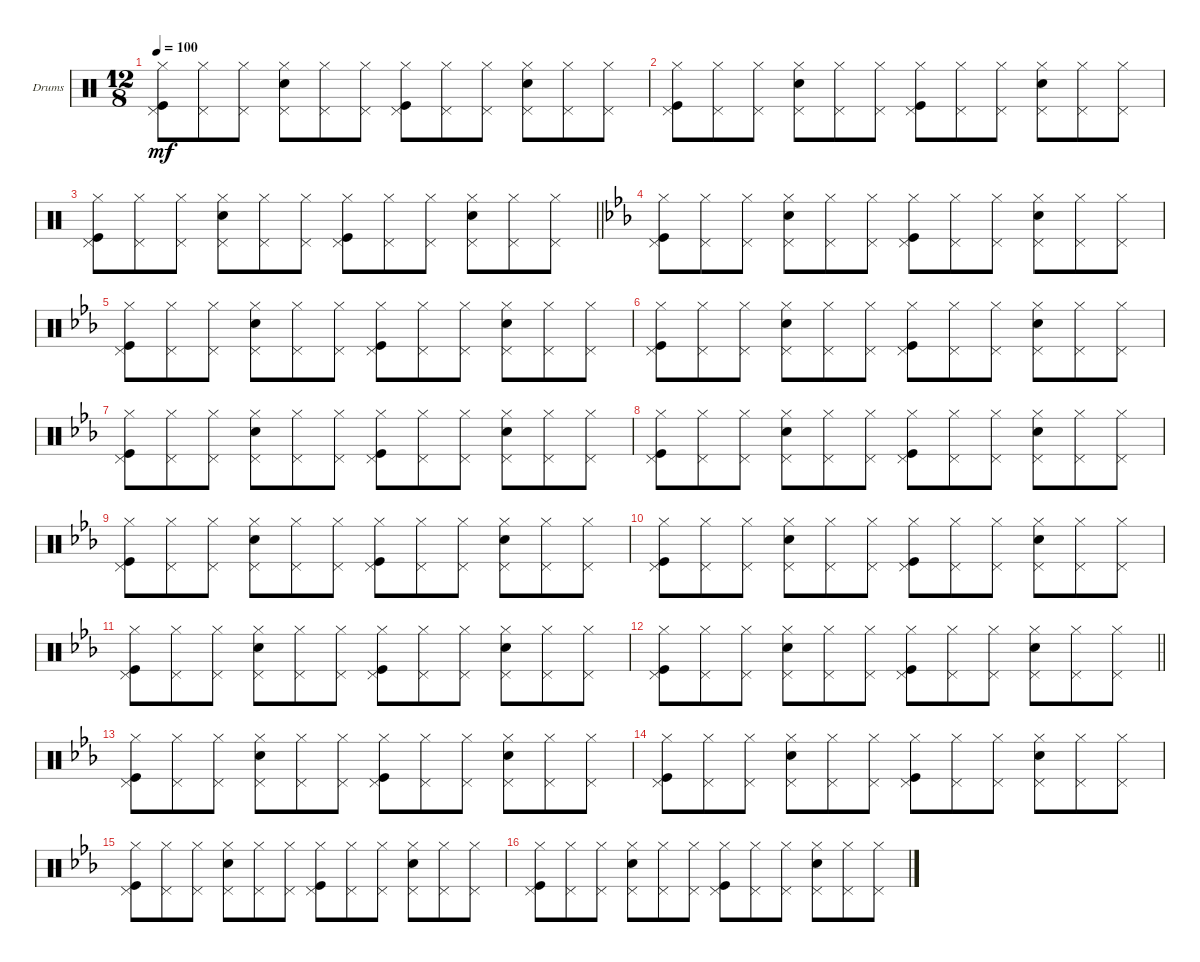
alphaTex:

\defaultSystemsLayout 4
\bracketExtendMode nobrackets
\firstSystemTrackNameOrientation horizontal
\otherSystemsTrackNameOrientation horizontal
\track ("Drumkit" "Drums") {instrument percussion}
\staff {score}
\articulation defaults
\ts (12 8)
\tempo 100
\clef neutral
\ks c
("Pedal Hi-Hat (hit)" "Kick (hit)" "Hi-Hat (closed)").8{dy mf} ("Pedal Hi-Hat (hit)" "Hi-Hat (closed)").8 ("Pedal Hi-Hat (hit)" "Hi-Hat (closed)").8 ("Pedal Hi-Hat (hit)" "Snare (hit) 2" "Hi-Hat (closed)").8 ("Pedal Hi-Hat (hit)" "Hi-Hat (closed)").8 ("Pedal Hi-Hat (hit)" "Hi-Hat (closed)").8 ("Pedal Hi-Hat (hit)" "Kick (hit)" "Hi-Hat (closed)").8 ("Pedal Hi-Hat (hit)" "Hi-Hat (closed)").8 ("Pedal Hi-Hat (hit)" "Hi-Hat (closed)").8 ("Pedal Hi-Hat (hit)" "Snare (hit) 2" "Hi-Hat (closed)").8 ("Pedal Hi-Hat (hit)" "Hi-Hat (closed)").8 ("Pedal Hi-Hat (hit)" "Hi-Hat (closed)").8 |
("Pedal Hi-Hat (hit)" "Kick (hit)" "Hi-Hat (closed)").8 ("Pedal Hi-Hat (hit)" "Hi-Hat (closed)").8 ("Pedal Hi-Hat (hit)" "Hi-Hat (closed)").8 ("Pedal Hi-Hat (hit)" "Snare (hit) 2" "Hi-Hat (closed)").8 ("Pedal Hi-Hat (hit)" "Hi-Hat (closed)").8 ("Pedal Hi-Hat (hit)" "Hi-Hat (closed)").8 ("Pedal Hi-Hat (hit)" "Kick (hit)" "Hi-Hat (closed)").8 ("Pedal Hi-Hat (hit)" "Hi-Hat (closed)").8 ("Pedal Hi-Hat (hit)" "Hi-Hat (closed)").8 ("Pedal Hi-Hat (hit)" "Snare (hit) 2" "Hi-Hat (closed)").8 ("Pedal Hi-Hat (hit)" "Hi-Hat (closed)").8 ("Pedal Hi-Hat (hit)" "Hi-Hat (closed)").8 |
\barLineRight lightlight
("Pedal Hi-Hat (hit)" "Kick (hit)" "Hi-Hat (closed)").8 ("Pedal Hi-Hat (hit)" "Hi-Hat (closed)").8 ("Pedal Hi-Hat (hit)" "Hi-Hat (closed)").8 ("Pedal Hi-Hat (hit)" "Snare (hit) 2" "Hi-Hat (closed)").8 ("Pedal Hi-Hat (hit)" "Hi-Hat (closed)").8 ("Pedal Hi-Hat (hit)" "Hi-Hat (closed)").8 ("Pedal Hi-Hat (hit)" "Kick (hit)" "Hi-Hat (closed)").8 ("Pedal Hi-Hat (hit)" "Hi-Hat (closed)").8 ("Pedal Hi-Hat (hit)" "Hi-Hat (closed)").8 ("Pedal Hi-Hat (hit)" "Snare (hit) 2" "Hi-Hat (closed)").8 ("Pedal Hi-Hat (hit)" "Hi-Hat (closed)").8 ("Pedal Hi-Hat (hit)" "Hi-Hat (closed)").8 |
\ks eb
("Pedal Hi-Hat (hit)" "Kick (hit)" "Hi-Hat (closed)").8 ("Pedal Hi-Hat (hit)" "Hi-Hat (closed)").8 ("Pedal Hi-Hat (hit)" "Hi-Hat (closed)").8 ("Pedal Hi-Hat (hit)" "Snare (hit) 2" "Hi-Hat (closed)").8 ("Pedal Hi-Hat (hit)" "Hi-Hat (closed)").8 ("Pedal Hi-Hat (hit)" "Hi-Hat (closed)").8 ("Pedal Hi-Hat (hit)" "Kick (hit)" "Hi-Hat (closed)").8 ("Pedal Hi-Hat (hit)" "Hi-Hat (closed)").8 ("Pedal Hi-Hat (hit)" "Hi-Hat (closed)").8 ("Pedal Hi-Hat (hit)" "Snare (hit) 2" "Hi-Hat (closed)").8 ("Pedal Hi-Hat (hit)" "Hi-Hat (closed)").8 ("Pedal Hi-Hat (hit)" "Hi-Hat (closed)").8 |
("Pedal Hi-Hat (hit)" "Kick (hit)" "Hi-Hat (closed)").8 ("Pedal Hi-Hat (hit)" "Hi-Hat (closed)").8 ("Pedal Hi-Hat (hit)" "Hi-Hat (closed)").8 ("Pedal Hi-Hat (hit)" "Snare (hit) 2" "Hi-Hat (closed)").8 ("Pedal Hi-Hat (hit)" "Hi-Hat (closed)").8 ("Pedal Hi-Hat (hit)" "Hi-Hat (closed)").8 ("Pedal Hi-Hat (hit)" "Kick (hit)" "Hi-Hat (closed)").8 ("Pedal Hi-Hat (hit)" "Hi-Hat (closed)").8 ("Pedal Hi-Hat (hit)" "Hi-Hat (closed)").8 ("Pedal Hi-Hat (hit)" "Snare (hit) 2" "Hi-Hat (closed)").8 ("Pedal Hi-Hat (hit)" "Hi-Hat (closed)").8 ("Pedal Hi-Hat (hit)" "Hi-Hat (closed)").8 |
("Pedal Hi-Hat (hit)" "Kick (hit)" "Hi-Hat (closed)").8 ("Pedal Hi-Hat (hit)" "Hi-Hat (closed)").8 ("Pedal Hi-Hat (hit)" "Hi-Hat (closed)").8 ("Pedal Hi-Hat (hit)" "Snare (hit) 2" "Hi-Hat (closed)").8 ("Pedal Hi-Hat (hit)" "Hi-Hat (closed)").8 ("Pedal Hi-Hat (hit)" "Hi-Hat (closed)").8 ("Pedal Hi-Hat (hit)" "Kick (hit)" "Hi-Hat (closed)").8 ("Pedal Hi-Hat (hit)" "Hi-Hat (closed)").8 ("Pedal Hi-Hat (hit)" "Hi-Hat (closed)").8 ("Pedal Hi-Hat (hit)" "Snare (hit) 2" "Hi-Hat (closed)").8 ("Pedal Hi-Hat (hit)" "Hi-Hat (closed)").8 ("Pedal Hi-Hat (hit)" "Hi-Hat (closed)").8 |
("Pedal Hi-Hat (hit)" "Kick (hit)" "Hi-Hat (closed)").8 ("Pedal Hi-Hat (hit)" "Hi-Hat (closed)").8 ("Pedal Hi-Hat (hit)" "Hi-Hat (closed)").8 ("Pedal Hi-Hat (hit)" "Snare (hit) 2" "Hi-Hat (closed)").8 ("Pedal Hi-Hat (hit)" "Hi-Hat (closed)").8 ("Pedal Hi-Hat (hit)" "Hi-Hat (closed)").8 ("Pedal Hi-Hat (hit)" "Kick (hit)" "Hi-Hat (closed)").8 ("Pedal Hi-Hat (hit)" "Hi-Hat (closed)").8 ("Pedal Hi-Hat (hit)" "Hi-Hat (closed)").8 ("Pedal Hi-Hat (hit)" "Snare (hit) 2" "Hi-Hat (closed)").8 ("Pedal Hi-Hat (hit)" "Hi-Hat (closed)").8 ("Pedal Hi-Hat (hit)" "Hi-Hat (closed)").8 |
("Pedal Hi-Hat (hit)" "Kick (hit)" "Hi-Hat (closed)").8 ("Pedal Hi-Hat (hit)" "Hi-Hat (closed)").8 ("Pedal Hi-Hat (hit)" "Hi-Hat (closed)").8 ("Pedal Hi-Hat (hit)" "Snare (hit) 2" "Hi-Hat (closed)").8 ("Pedal Hi-Hat (hit)" "Hi-Hat (closed)").8 ("Pedal Hi-Hat (hit)" "Hi-Hat (closed)").8 ("Pedal Hi-Hat (hit)" "Kick (hit)" "Hi-Hat (closed)").8 ("Pedal Hi-Hat (hit)" "Hi-Hat (closed)").8 ("Pedal Hi-Hat (hit)" "Hi-Hat (closed)").8 ("Pedal Hi-Hat (hit)" "Snare (hit) 2" "Hi-Hat (closed)").8 ("Pedal Hi-Hat (hit)" "Hi-Hat (closed)").8 ("Pedal Hi-Hat (hit)" "Hi-Hat (closed)").8 |
("Pedal Hi-Hat (hit)" "Kick (hit)" "Hi-Hat (closed)").8 ("Pedal Hi-Hat (hit)" "Hi-Hat (closed)").8 ("Pedal Hi-Hat (hit)" "Hi-Hat (closed)").8 ("Pedal Hi-Hat (hit)" "Snare (hit) 2" "Hi-Hat (closed)").8 ("Pedal Hi-Hat (hit)" "Hi-Hat (closed)").8 ("Pedal Hi-Hat (hit)" "Hi-Hat (closed)").8 ("Pedal Hi-Hat (hit)" "Kick (hit)" "Hi-Hat (closed)").8 ("Pedal Hi-Hat (hit)" "Hi-Hat (closed)").8 ("Pedal Hi-Hat (hit)" "Hi-Hat (closed)").8 ("Pedal Hi-Hat (hit)" "Snare (hit) 2" "Hi-Hat (closed)").8 ("Pedal Hi-Hat (hit)" "Hi-Hat (closed)").8 ("Pedal Hi-Hat (hit)" "Hi-Hat (closed)").8 |
("Pedal Hi-Hat (hit)" "Kick (hit)" "Hi-Hat (closed)").8 ("Pedal Hi-Hat (hit)" "Hi-Hat (closed)").8 ("Pedal Hi-Hat (hit)" "Hi-Hat (closed)").8 ("Pedal Hi-Hat (hit)" "Snare (hit) 2" "Hi-Hat (closed)").8 ("Pedal Hi-Hat (hit)" "Hi-Hat (closed)").8 ("Pedal Hi-Hat (hit)" "Hi-Hat (closed)").8 ("Pedal Hi-Hat (hit)" "Kick (hit)" "Hi-Hat (closed)").8 ("Pedal Hi-Hat (hit)" "Hi-Hat (closed)").8 ("Pedal Hi-Hat (hit)" "Hi-Hat (closed)").8 ("Pedal Hi-Hat (hit)" "Snare (hit) 2" "Hi-Hat (closed)").8 ("Pedal Hi-Hat (hit)" "Hi-Hat (closed)").8 ("Pedal Hi-Hat (hit)" "Hi-Hat (closed)").8 |
("Pedal Hi-Hat (hit)" "Kick (hit)" "Hi-Hat (closed)").8 ("Pedal Hi-Hat (hit)" "Hi-Hat (closed)").8 ("Pedal Hi-Hat (hit)" "Hi-Hat (closed)").8 ("Pedal Hi-Hat (hit)" "Snare (hit) 2" "Hi-Hat (closed)").8 ("Pedal Hi-Hat (hit)" "Hi-Hat (closed)").8 ("Pedal Hi-Hat (hit)" "Hi-Hat (closed)").8 ("Pedal Hi-Hat (hit)" "Kick (hit)" "Hi-Hat (closed)").8 ("Pedal Hi-Hat (hit)" "Hi-Hat (closed)").8 ("Pedal Hi-Hat (hit)" "Hi-Hat (closed)").8 ("Pedal Hi-Hat (hit)" "Snare (hit) 2" "Hi-Hat (closed)").8 ("Pedal Hi-Hat (hit)" "Hi-Hat (closed)").8 ("Pedal Hi-Hat (hit)" "Hi-Hat (closed)").8 |
\barLineRight lightlight
("Pedal Hi-Hat (hit)" "Kick (hit)" "Hi-Hat (closed)").8 ("Pedal Hi-Hat (hit)" "Hi-Hat (closed)").8 ("Pedal Hi-Hat (hit)" "Hi-Hat (closed)").8 ("Pedal Hi-Hat (hit)" "Snare (hit) 2" "Hi-Hat (closed)").8 ("Pedal Hi-Hat (hit)" "Hi-Hat (closed)").8 ("Pedal Hi-Hat (hit)" "Hi-Hat (closed)").8 ("Pedal Hi-Hat (hit)" "Kick (hit)" "Hi-Hat (closed)").8 ("Pedal Hi-Hat (hit)" "Hi-Hat (closed)").8 ("Pedal Hi-Hat (hit)" "Hi-Hat (closed)").8 ("Pedal Hi-Hat (hit)" "Snare (hit) 2" "Hi-Hat (closed)").8 ("Pedal Hi-Hat (hit)" "Hi-Hat (closed)").8 ("Pedal Hi-Hat (hit)" "Hi-Hat (closed)").8 |
("Pedal Hi-Hat (hit)" "Kick (hit)" "Hi-Hat (closed)").8 ("Pedal Hi-Hat (hit)" "Hi-Hat (closed)").8 ("Pedal Hi-Hat (hit)" "Hi-Hat (closed)").8 ("Pedal Hi-Hat (hit)" "Snare (hit) 2" "Hi-Hat (closed)").8 ("Pedal Hi-Hat (hit)" "Hi-Hat (closed)").8 ("Pedal Hi-Hat (hit)" "Hi-Hat (closed)").8 ("Pedal Hi-Hat (hit)" "Kick (hit)" "Hi-Hat (closed)").8 ("Pedal Hi-Hat (hit)" "Hi-Hat (closed)").8 ("Pedal Hi-Hat (hit)" "Hi-Hat (closed)").8 ("Pedal Hi-Hat (hit)" "Snare (hit) 2" "Hi-Hat (closed)").8 ("Pedal Hi-Hat (hit)" "Hi-Hat (closed)").8 ("Pedal Hi-Hat (hit)" "Hi-Hat (closed)").8 |
("Pedal Hi-Hat (hit)" "Kick (hit)" "Hi-Hat (closed)").8 ("Pedal Hi-Hat (hit)" "Hi-Hat (closed)").8 ("Pedal Hi-Hat (hit)" "Hi-Hat (closed)").8 ("Pedal Hi-Hat (hit)" "Snare (hit) 2" "Hi-Hat (closed)").8 ("Pedal Hi-Hat (hit)" "Hi-Hat (closed)").8 ("Pedal Hi-Hat (hit)" "Hi-Hat (closed)").8 ("Pedal Hi-Hat (hit)" "Kick (hit)" "Hi-Hat (closed)").8 ("Pedal Hi-Hat (hit)" "Hi-Hat (closed)").8 ("Pedal Hi-Hat (hit)" "Hi-Hat (closed)").8 ("Pedal Hi-Hat (hit)" "Snare (hit) 2" "Hi-Hat (closed)").8 ("Pedal Hi-Hat (hit)" "Hi-Hat (closed)").8 ("Pedal Hi-Hat (hit)" "Hi-Hat (closed)").8 |
("Pedal Hi-Hat (hit)" "Kick (hit)" "Hi-Hat (closed)").8 ("Pedal Hi-Hat (hit)" "Hi-Hat (closed)").8 ("Pedal Hi-Hat (hit)" "Hi-Hat (closed)").8 ("Pedal Hi-Hat (hit)" "Snare (hit) 2" "Hi-Hat (closed)").8 ("Pedal Hi-Hat (hit)" "Hi-Hat (closed)").8 ("Pedal Hi-Hat (hit)" "Hi-Hat (closed)").8 ("Pedal Hi-Hat (hit)" "Kick (hit)" "Hi-Hat (closed)").8 ("Pedal Hi-Hat (hit)" "Hi-Hat (closed)").8 ("Pedal Hi-Hat (hit)" "Hi-Hat (closed)").8 ("Pedal Hi-Hat (hit)" "Snare (hit) 2" "Hi-Hat (closed)").8 ("Pedal Hi-Hat (hit)" "Hi-Hat (closed)").8 ("Pedal Hi-Hat (hit)" "Hi-Hat (closed)").8 |
("Pedal Hi-Hat (hit)" "Kick (hit)" "Hi-Hat (closed)").8 ("Pedal Hi-Hat (hit)" "Hi-Hat (closed)").8 ("Pedal Hi-Hat (hit)" "Hi-Hat (closed)").8 ("Pedal Hi-Hat (hit)" "Snare (hit) 2" "Hi-Hat (closed)").8 ("Pedal Hi-Hat (hit)" "Hi-Hat (closed)").8 ("Pedal Hi-Hat (hit)" "Hi-Hat (closed)").8 ("Pedal Hi-Hat (hit)" "Kick (hit)" "Hi-Hat (closed)").8 ("Pedal Hi-Hat (hit)" "Hi-Hat (closed)").8 ("Pedal Hi-Hat (hit)" "Hi-Hat (closed)").8 ("Pedal Hi-Hat (hit)" "Snare (hit) 2" "Hi-Hat (closed)").8 ("Pedal Hi-Hat (hit)" "Hi-Hat (closed)").8 ("Pedal Hi-Hat (hit)" "Hi-Hat (closed)").8
